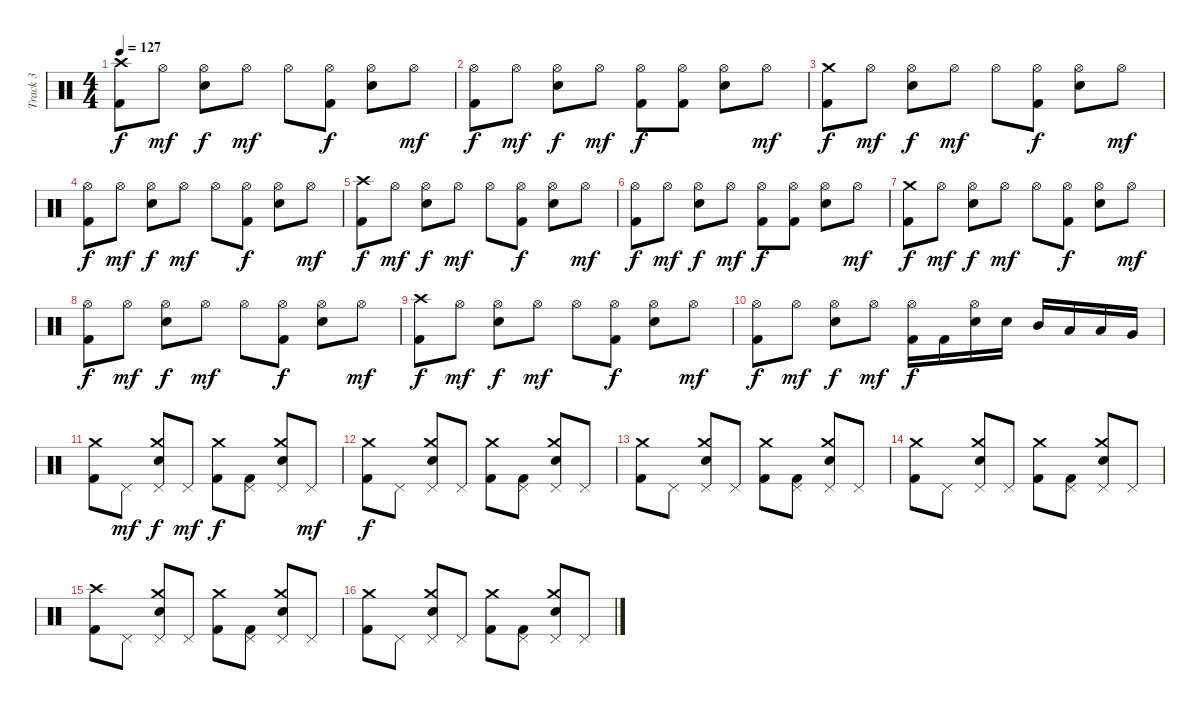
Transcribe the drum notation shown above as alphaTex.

\track ("Track 3" "Track 3") {instrument percussion}
\staff {score}
\articulation defaults
\ts (4 4)
\tempo 127
\clef neutral
\ks c
("Crash high (hit)" "Kick (hit) 2").8{dy f} "Hi-Hat (open)".8{dy mf} ("Hi-Hat (open)" "Snare (hit) 2").8{dy f} "Hi-Hat (open)".8{dy mf} "Hi-Hat (open)".8 ("Hi-Hat (open)" "Kick (hit) 2").8{dy f} ("Hi-Hat (open)" "Snare (hit) 2").8 "Hi-Hat (open)".8{dy mf} |
("Hi-Hat (open)" "Kick (hit) 2").8{dy f} "Hi-Hat (open)".8{dy mf} ("Hi-Hat (open)" "Snare (hit) 2").8{dy f} "Hi-Hat (open)".8{dy mf} ("Hi-Hat (open)" "Kick (hit) 2").8{dy f} ("Hi-Hat (open)" "Kick (hit) 2").8 ("Hi-Hat (open)" "Snare (hit) 2").8 "Hi-Hat (open)".8{dy mf} |
("Crash medium (hit)" "Kick (hit) 2").8{dy f} "Hi-Hat (open)".8{dy mf} ("Hi-Hat (open)" "Snare (hit) 2").8{dy f} "Hi-Hat (open)".8{dy mf} "Hi-Hat (open)".8 ("Hi-Hat (open)" "Kick (hit) 2").8{dy f} ("Hi-Hat (open)" "Snare (hit) 2").8 "Hi-Hat (open)".8{dy mf} |
("Hi-Hat (open)" "Kick (hit) 2").8{dy f} "Hi-Hat (open)".8{dy mf} ("Hi-Hat (open)" "Snare (hit) 2").8{dy f} "Hi-Hat (open)".8{dy mf} "Hi-Hat (open)".8 ("Hi-Hat (open)" "Kick (hit) 2").8{dy f} ("Hi-Hat (open)" "Snare (hit) 2").8 "Hi-Hat (open)".8{dy mf} |
("Crash high (hit)" "Kick (hit) 2").8{dy f} "Hi-Hat (open)".8{dy mf} ("Hi-Hat (open)" "Snare (hit) 2").8{dy f} "Hi-Hat (open)".8{dy mf} "Hi-Hat (open)".8 ("Hi-Hat (open)" "Kick (hit) 2").8{dy f} ("Hi-Hat (open)" "Snare (hit) 2").8 "Hi-Hat (open)".8{dy mf} |
("Hi-Hat (open)" "Kick (hit) 2").8{dy f} "Hi-Hat (open)".8{dy mf} ("Hi-Hat (open)" "Snare (hit) 2").8{dy f} "Hi-Hat (open)".8{dy mf} ("Hi-Hat (open)" "Kick (hit) 2").8{dy f} ("Hi-Hat (open)" "Kick (hit) 2").8 ("Hi-Hat (open)" "Snare (hit) 2").8 "Hi-Hat (open)".8{dy mf} |
("Crash medium (hit)" "Kick (hit) 2").8{dy f} "Hi-Hat (open)".8{dy mf} ("Hi-Hat (open)" "Snare (hit) 2").8{dy f} "Hi-Hat (open)".8{dy mf} "Hi-Hat (open)".8 ("Hi-Hat (open)" "Kick (hit) 2").8{dy f} ("Hi-Hat (open)" "Snare (hit) 2").8 "Hi-Hat (open)".8{dy mf} |
("Hi-Hat (open)" "Kick (hit) 2").8{dy f} "Hi-Hat (open)".8{dy mf} ("Hi-Hat (open)" "Snare (hit) 2").8{dy f} "Hi-Hat (open)".8{dy mf} "Hi-Hat (open)".8 ("Hi-Hat (open)" "Kick (hit) 2").8{dy f} ("Hi-Hat (open)" "Snare (hit) 2").8 "Hi-Hat (open)".8{dy mf} |
("Crash high (hit)" "Kick (hit) 2").8{dy f} "Hi-Hat (open)".8{dy mf} ("Hi-Hat (open)" "Snare (hit) 2").8{dy f} "Hi-Hat (open)".8{dy mf} "Hi-Hat (open)".8 ("Hi-Hat (open)" "Kick (hit) 2").8{dy f} ("Hi-Hat (open)" "Snare (hit) 2").8 "Hi-Hat (open)".8{dy mf} |
("Hi-Hat (open)" "Kick (hit) 2").8{dy f} "Hi-Hat (open)".8{dy mf} ("Hi-Hat (open)" "Snare (hit) 2").8{dy f} "Hi-Hat (open)".8{dy mf} ("Hi-Hat (open)" "Kick (hit) 2").16{dy f} "Kick (hit) 2".16 ("Hi-Hat (open)" "Snare (hit) 2").16 "Snare (hit) 2".16 "Mid Tom (hit)".16 "Low Tom (hit)".16 "Low Tom (hit)".16 "Very Low Tom (hit)".16 |
("Crash medium (hit)" "Kick (hit) 2").8 "Pedal Hi-Hat (hit)".8{dy mf} ("Crash medium (hit)" "Pedal Hi-Hat (hit)" "Snare (hit) 2").8{dy f} "Pedal Hi-Hat (hit)".8{dy mf} ("Crash medium (hit)" "Kick (hit) 2").8{dy f} ("Pedal Hi-Hat (hit)" "Kick (hit) 2").8 ("Crash medium (hit)" "Pedal Hi-Hat (hit)" "Snare (hit) 2").8 "Pedal Hi-Hat (hit)".8{dy mf} |
("Crash medium (hit)" "Kick (hit) 2").8{dy f} "Pedal Hi-Hat (hit)".8 ("Crash medium (hit)" "Pedal Hi-Hat (hit)" "Snare (hit) 2").8 "Pedal Hi-Hat (hit)".8 ("Crash medium (hit)" "Kick (hit) 2").8 ("Pedal Hi-Hat (hit)" "Kick (hit) 2").8 ("Crash medium (hit)" "Pedal Hi-Hat (hit)" "Snare (hit) 2").8 "Pedal Hi-Hat (hit)".8 |
("Crash medium (hit)" "Kick (hit) 2").8 "Pedal Hi-Hat (hit)".8 ("Crash medium (hit)" "Pedal Hi-Hat (hit)" "Snare (hit) 2").8 "Pedal Hi-Hat (hit)".8 ("Crash medium (hit)" "Kick (hit) 2").8 ("Pedal Hi-Hat (hit)" "Kick (hit) 2").8 ("Crash medium (hit)" "Pedal Hi-Hat (hit)" "Snare (hit) 2").8 "Pedal Hi-Hat (hit)".8 |
("Crash medium (hit)" "Kick (hit) 2").8 "Pedal Hi-Hat (hit)".8 ("Crash medium (hit)" "Pedal Hi-Hat (hit)" "Snare (hit) 2").8 "Pedal Hi-Hat (hit)".8 ("Crash medium (hit)" "Kick (hit) 2").8 ("Pedal Hi-Hat (hit)" "Kick (hit) 2").8 ("Crash medium (hit)" "Pedal Hi-Hat (hit)" "Snare (hit) 2").8 "Pedal Hi-Hat (hit)".8 |
("Crash high (hit)" "Kick (hit) 2").8 "Pedal Hi-Hat (hit)".8 ("Crash medium (hit)" "Pedal Hi-Hat (hit)" "Snare (hit) 2").8 "Pedal Hi-Hat (hit)".8 ("Crash medium (hit)" "Kick (hit) 2").8 ("Pedal Hi-Hat (hit)" "Kick (hit) 2").8 ("Crash medium (hit)" "Pedal Hi-Hat (hit)" "Snare (hit) 2").8 "Pedal Hi-Hat (hit)".8 |
("Crash medium (hit)" "Kick (hit) 2").8 "Pedal Hi-Hat (hit)".8 ("Crash medium (hit)" "Pedal Hi-Hat (hit)" "Snare (hit) 2").8 "Pedal Hi-Hat (hit)".8 ("Crash medium (hit)" "Kick (hit) 2").8 ("Pedal Hi-Hat (hit)" "Kick (hit) 2").8 ("Crash medium (hit)" "Pedal Hi-Hat (hit)" "Snare (hit) 2").8 "Pedal Hi-Hat (hit)".8
